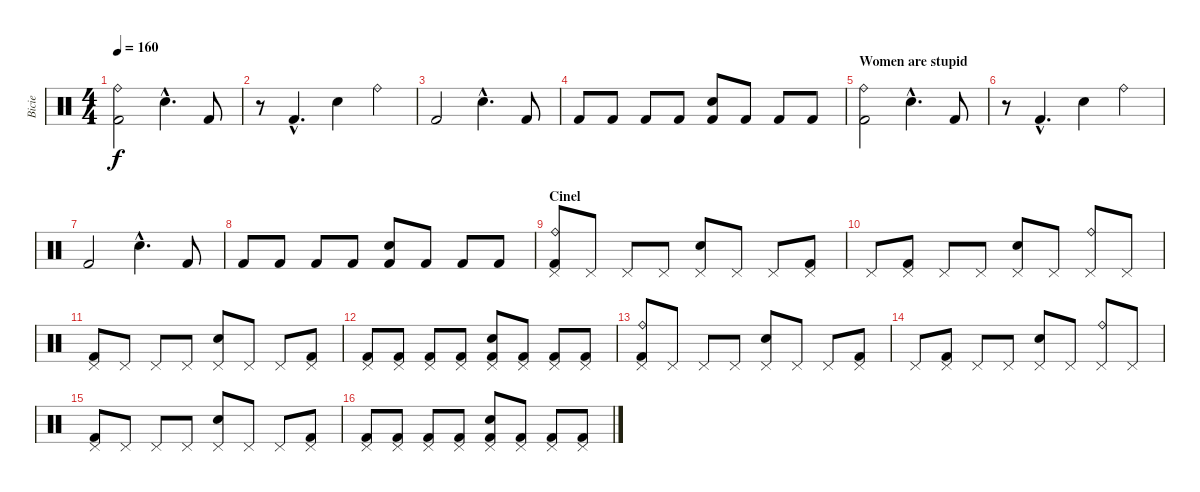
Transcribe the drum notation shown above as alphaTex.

\track ("Bicie" "Bicie") {instrument percussion}
\staff {score}
\articulation defaults
\ts (4 4)
\tempo 160
\clef neutral
\ks c
("Ride (bell)" "Kick (hit) 2").2{dy f} "Hand Clap (hit)"{hac}.4{d} "Kick (hit) 2".8 |
r.8 "Kick (hit) 2"{hac}.4{d} "Hand Clap (hit)".4 "Ride (bell)".4 |
"Kick (hit) 2".2 "Hand Clap (hit)"{hac}.4{d} "Kick (hit) 2".8 |
"Kick (hit) 2".8 "Kick (hit) 2".8 "Kick (hit) 2".8 "Kick (hit) 2".8 ("Hand Clap (hit)" "Kick (hit) 2").8 "Kick (hit) 2".8 "Kick (hit) 2".8 "Kick (hit) 2".8 |
\section ("" "Women are stupid")
("Ride (bell)" "Kick (hit) 2").2 "Hand Clap (hit)"{hac}.4{d} "Kick (hit) 2".8 |
r.8 "Kick (hit) 2"{hac}.4{d} "Hand Clap (hit)".4 "Ride (bell)".4 |
"Kick (hit) 2".2 "Hand Clap (hit)"{hac}.4{d} "Kick (hit) 2".8 |
"Kick (hit) 2".8 "Kick (hit) 2".8 "Kick (hit) 2".8 "Kick (hit) 2".8 ("Hand Clap (hit)" "Kick (hit) 2").8 "Kick (hit) 2".8 "Kick (hit) 2".8 "Kick (hit) 2".8 |
\section ("" "Cinel")
("Ride (bell)" "Pedal Hi-Hat (hit)" "Kick (hit) 2").8 "Pedal Hi-Hat (hit)".8 "Pedal Hi-Hat (hit)".8 "Pedal Hi-Hat (hit)".8 ("Pedal Hi-Hat (hit)" "Hand Clap (hit)").8 "Pedal Hi-Hat (hit)".8 "Pedal Hi-Hat (hit)".8 ("Pedal Hi-Hat (hit)" "Kick (hit) 2").8 |
"Pedal Hi-Hat (hit)".8 ("Pedal Hi-Hat (hit)" "Kick (hit) 2").8 "Pedal Hi-Hat (hit)".8 "Pedal Hi-Hat (hit)".8 ("Pedal Hi-Hat (hit)" "Hand Clap (hit)").8 "Pedal Hi-Hat (hit)".8 ("Ride (bell)" "Pedal Hi-Hat (hit)").8 "Pedal Hi-Hat (hit)".8 |
("Pedal Hi-Hat (hit)" "Kick (hit) 2").8 "Pedal Hi-Hat (hit)".8 "Pedal Hi-Hat (hit)".8 "Pedal Hi-Hat (hit)".8 ("Pedal Hi-Hat (hit)" "Hand Clap (hit)").8 "Pedal Hi-Hat (hit)".8 "Pedal Hi-Hat (hit)".8 ("Pedal Hi-Hat (hit)" "Kick (hit) 2").8 |
("Pedal Hi-Hat (hit)" "Kick (hit) 2").8 ("Pedal Hi-Hat (hit)" "Kick (hit) 2").8 ("Pedal Hi-Hat (hit)" "Kick (hit) 2").8 ("Pedal Hi-Hat (hit)" "Kick (hit) 2").8 ("Pedal Hi-Hat (hit)" "Hand Clap (hit)" "Kick (hit) 2").8 ("Pedal Hi-Hat (hit)" "Kick (hit) 2").8 ("Pedal Hi-Hat (hit)" "Kick (hit) 2").8 ("Pedal Hi-Hat (hit)" "Kick (hit) 2").8 |
("Ride (bell)" "Pedal Hi-Hat (hit)" "Kick (hit) 2").8 "Pedal Hi-Hat (hit)".8 "Pedal Hi-Hat (hit)".8 "Pedal Hi-Hat (hit)".8 ("Pedal Hi-Hat (hit)" "Hand Clap (hit)").8 "Pedal Hi-Hat (hit)".8 "Pedal Hi-Hat (hit)".8 ("Pedal Hi-Hat (hit)" "Kick (hit) 2").8 |
"Pedal Hi-Hat (hit)".8 ("Pedal Hi-Hat (hit)" "Kick (hit) 2").8 "Pedal Hi-Hat (hit)".8 "Pedal Hi-Hat (hit)".8 ("Pedal Hi-Hat (hit)" "Hand Clap (hit)").8 "Pedal Hi-Hat (hit)".8 ("Ride (bell)" "Pedal Hi-Hat (hit)").8 "Pedal Hi-Hat (hit)".8 |
("Pedal Hi-Hat (hit)" "Kick (hit) 2").8 "Pedal Hi-Hat (hit)".8 "Pedal Hi-Hat (hit)".8 "Pedal Hi-Hat (hit)".8 ("Pedal Hi-Hat (hit)" "Hand Clap (hit)").8 "Pedal Hi-Hat (hit)".8 "Pedal Hi-Hat (hit)".8 ("Pedal Hi-Hat (hit)" "Kick (hit) 2").8 |
("Pedal Hi-Hat (hit)" "Kick (hit) 2").8 ("Pedal Hi-Hat (hit)" "Kick (hit) 2").8 ("Pedal Hi-Hat (hit)" "Kick (hit) 2").8 ("Pedal Hi-Hat (hit)" "Kick (hit) 2").8 ("Pedal Hi-Hat (hit)" "Hand Clap (hit)" "Kick (hit) 2").8 ("Pedal Hi-Hat (hit)" "Kick (hit) 2").8 ("Pedal Hi-Hat (hit)" "Kick (hit) 2").8 ("Pedal Hi-Hat (hit)" "Kick (hit) 2").8
